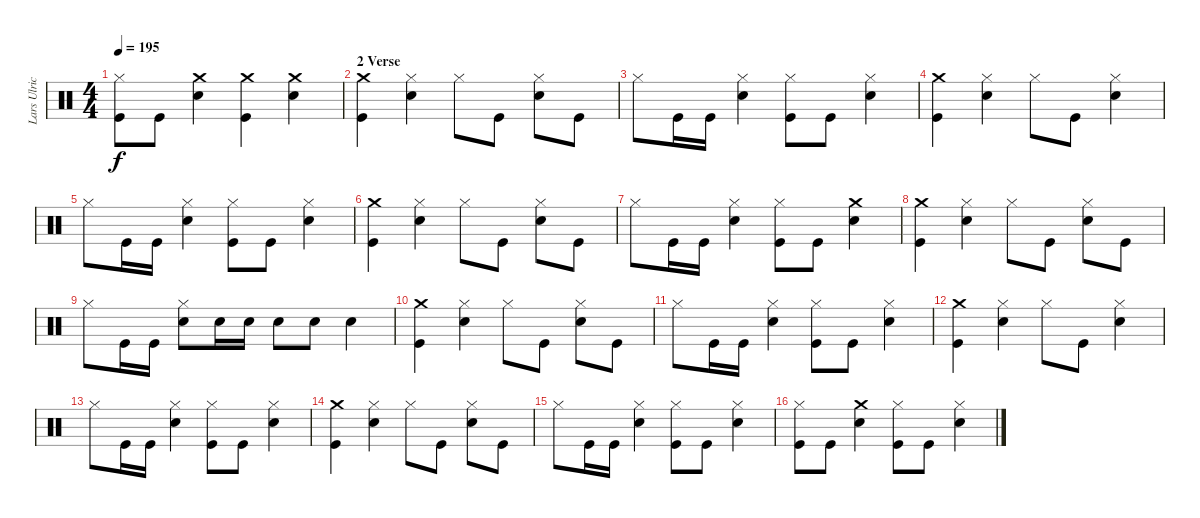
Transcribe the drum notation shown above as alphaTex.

\track ("Lars Ulrich (Drums)" "Lars Ulric") {instrument percussion}
\staff {score}
\articulation defaults
\ts (4 4)
\tempo 195
\clef neutral
\ks c
("Kick (hit)" "Hi-Hat (closed)").8{dy f} "Kick (hit)".8 ("Crash medium (hit)" "Snare (hit) 2").4 ("Kick (hit)" "Crash medium (hit)").4 ("Snare (hit) 2" "Crash medium (hit)").4 |
\section ("" "2 Verse")
("Kick (hit)" "Crash medium (hit)").4 ("Snare (hit) 2" "Hi-Hat (closed)").4 "Hi-Hat (closed)".8 "Kick (hit)".8 ("Snare (hit) 2" "Hi-Hat (closed)").8 "Kick (hit)".8 |
"Hi-Hat (closed)".8 "Kick (hit)".16 "Kick (hit)".16 ("Snare (hit) 2" "Hi-Hat (closed)").4 ("Kick (hit)" "Hi-Hat (closed)").8 "Kick (hit)".8 ("Snare (hit) 2" "Hi-Hat (closed)").4 |
("Kick (hit)" "Crash medium (hit)").4 ("Hi-Hat (closed)" "Snare (hit) 2").4 "Hi-Hat (closed)".8 "Kick (hit)".8 ("Snare (hit) 2" "Hi-Hat (closed)").4 |
"Hi-Hat (closed)".8 "Kick (hit)".16 "Kick (hit)".16 ("Snare (hit) 2" "Hi-Hat (closed)").4 ("Kick (hit)" "Hi-Hat (closed)").8 "Kick (hit)".8 ("Hi-Hat (closed)" "Snare (hit) 2").4 |
("Kick (hit)" "Crash medium (hit)").4 ("Hi-Hat (closed)" "Snare (hit) 2").4 "Hi-Hat (closed)".8 "Kick (hit)".8 ("Snare (hit) 2" "Hi-Hat (closed)").8 "Kick (hit)".8 |
"Hi-Hat (closed)".8 "Kick (hit)".16 "Kick (hit)".16 ("Snare (hit) 2" "Hi-Hat (closed)").4 ("Kick (hit)" "Hi-Hat (closed)").8 "Kick (hit)".8 ("Crash medium (hit)" "Snare (hit) 2").4 |
("Kick (hit)" "Crash medium (hit)").4 ("Hi-Hat (closed)" "Snare (hit) 2").4 "Hi-Hat (closed)".8 "Kick (hit)".8 ("Snare (hit) 2" "Hi-Hat (closed)").8 "Kick (hit)".8 |
"Hi-Hat (closed)".8 "Kick (hit)".16 "Kick (hit)".16 ("Snare (hit) 2" "Hi-Hat (closed)").8 "Snare (hit) 2".16 "Snare (hit) 2".16 "Snare (hit) 2".8 "Snare (hit) 2".8 "Snare (hit) 2".4 |
("Kick (hit)" "Crash medium (hit)").4 ("Hi-Hat (closed)" "Snare (hit) 2").4 "Hi-Hat (closed)".8 "Kick (hit)".8 ("Snare (hit) 2" "Hi-Hat (closed)").8 "Kick (hit)".8 |
"Hi-Hat (closed)".8 "Kick (hit)".16 "Kick (hit)".16 ("Snare (hit) 2" "Hi-Hat (closed)").4 ("Kick (hit)" "Hi-Hat (closed)").8 "Kick (hit)".8 ("Snare (hit) 2" "Hi-Hat (closed)").4 |
("Kick (hit)" "Crash medium (hit)").4 ("Hi-Hat (closed)" "Snare (hit) 2").4 "Hi-Hat (closed)".8 "Kick (hit)".8 ("Snare (hit) 2" "Hi-Hat (closed)").4 |
"Hi-Hat (closed)".8 "Kick (hit)".16 "Kick (hit)".16 ("Snare (hit) 2" "Hi-Hat (closed)").4 ("Kick (hit)" "Hi-Hat (closed)").8 "Kick (hit)".8 ("Hi-Hat (closed)" "Snare (hit) 2").4 |
("Kick (hit)" "Crash medium (hit)").4 ("Hi-Hat (closed)" "Snare (hit) 2").4 "Hi-Hat (closed)".8 "Kick (hit)".8 ("Snare (hit) 2" "Hi-Hat (closed)").8 "Kick (hit)".8 |
"Hi-Hat (closed)".8 "Kick (hit)".16 "Kick (hit)".16 ("Snare (hit) 2" "Hi-Hat (closed)").4 ("Kick (hit)" "Hi-Hat (closed)").8 "Kick (hit)".8 ("Snare (hit) 2" "Hi-Hat (closed)").4 |
("Kick (hit)" "Hi-Hat (closed)").8 "Kick (hit)".8 ("Snare (hit) 2" "Crash medium (hit)").4 ("Kick (hit)" "Hi-Hat (closed)").8 "Kick (hit)".8 ("Snare (hit) 2" "Hi-Hat (closed)").4
